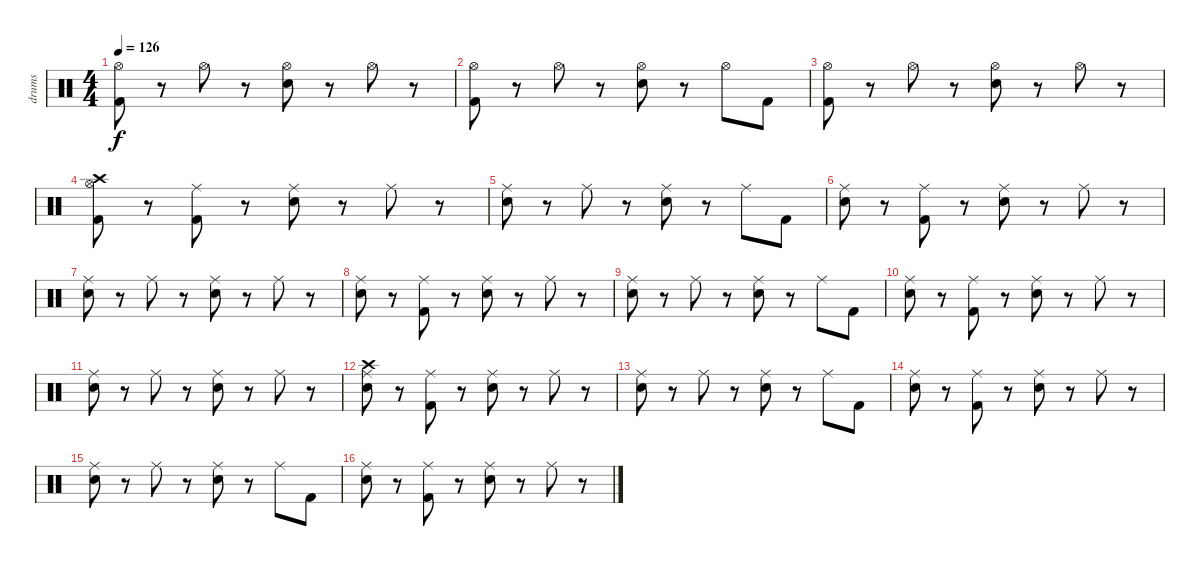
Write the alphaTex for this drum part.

\track ("drums" "drums") {instrument percussion}
\staff {score}
\articulation defaults
\ts (4 4)
\tempo 126
\clef neutral
\ks c
("Kick (hit) 2" "Hi-Hat (open)").8{dy f} r.8 "Hi-Hat (open)".8 r.8 ("Electric Snare (hit)" "Hi-Hat (open)").8 r.8 "Hi-Hat (open)".8 r.8 |
("Kick (hit) 2" "Hi-Hat (open)").8 r.8 "Hi-Hat (open)".8 r.8 ("Electric Snare (hit)" "Hi-Hat (open)").8 r.8 "Hi-Hat (open)".8 "Kick (hit) 2".8 |
("Kick (hit) 2" "Hi-Hat (open)").8 r.8 "Hi-Hat (open)".8 r.8 ("Electric Snare (hit)" "Hi-Hat (open)").8 r.8 "Hi-Hat (open)".8 r.8 |
("Kick (hit) 2" "Hi-Hat (open)" "Crash high (hit)").8 r.8 ("Kick (hit) 2" "Ride (middle)").8 r.8 ("Electric Snare (hit)" "Ride (middle)").8 r.8 "Ride (middle)".8 r.8 |
("Electric Snare (hit)" "Ride (middle)").8 r.8 "Ride (middle)".8 r.8 ("Electric Snare (hit)" "Ride (middle)").8 r.8 "Ride (middle)".8 "Kick (hit) 2".8 |
("Electric Snare (hit)" "Ride (middle)").8 r.8 ("Kick (hit) 2" "Ride (middle)").8 r.8 ("Electric Snare (hit)" "Ride (middle)").8 r.8 "Ride (middle)".8 r.8 |
("Electric Snare (hit)" "Ride (middle)").8 r.8 "Ride (middle)".8 r.8 ("Electric Snare (hit)" "Ride (middle)").8 r.8 "Ride (middle)".8 r.8 |
("Electric Snare (hit)" "Ride (middle)").8 r.8 ("Kick (hit) 2" "Ride (middle)").8 r.8 ("Electric Snare (hit)" "Ride (middle)").8 r.8 "Ride (middle)".8 r.8 |
("Electric Snare (hit)" "Ride (middle)").8 r.8 "Ride (middle)".8 r.8 ("Electric Snare (hit)" "Ride (middle)").8 r.8 "Ride (middle)".8 "Kick (hit) 2".8 |
("Electric Snare (hit)" "Ride (middle)").8 r.8 ("Kick (hit) 2" "Ride (middle)").8 r.8 ("Electric Snare (hit)" "Ride (middle)").8 r.8 "Ride (middle)".8 r.8 |
("Electric Snare (hit)" "Ride (middle)").8 r.8 "Ride (middle)".8 r.8 ("Electric Snare (hit)" "Ride (middle)").8 r.8 "Ride (middle)".8 r.8 |
("Electric Snare (hit)" "Crash high (hit)" "Ride (middle)").8 r.8 ("Kick (hit) 2" "Ride (middle)").8 r.8 ("Electric Snare (hit)" "Ride (middle)").8 r.8 "Ride (middle)".8 r.8 |
("Ride (middle)" "Electric Snare (hit)").8 r.8 "Ride (middle)".8 r.8 ("Electric Snare (hit)" "Ride (middle)").8 r.8 "Ride (middle)".8 "Kick (hit) 2".8 |
("Electric Snare (hit)" "Ride (middle)").8 r.8 ("Kick (hit) 2" "Ride (middle)").8 r.8 ("Electric Snare (hit)" "Ride (middle)").8 r.8 "Ride (middle)".8 r.8 |
("Electric Snare (hit)" "Ride (middle)").8 r.8 "Ride (middle)".8 r.8 ("Electric Snare (hit)" "Ride (middle)").8 r.8 "Ride (middle)".8 "Kick (hit) 2".8 |
("Electric Snare (hit)" "Ride (middle)").8 r.8 ("Kick (hit) 2" "Ride (middle)").8 r.8 ("Electric Snare (hit)" "Ride (middle)").8 r.8 "Ride (middle)".8 r.8
